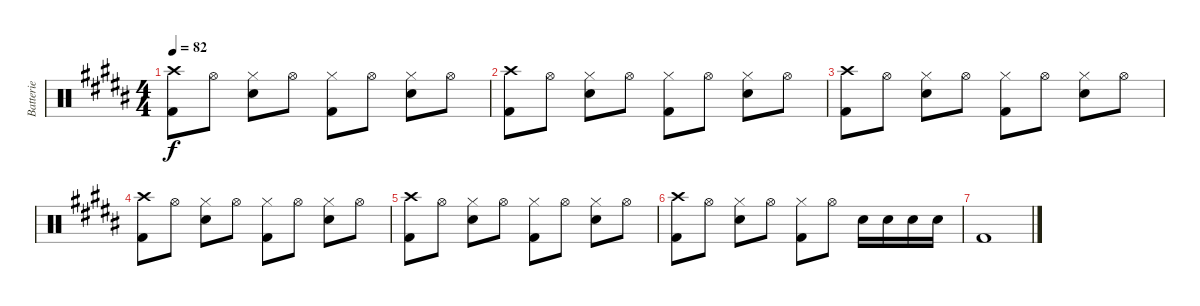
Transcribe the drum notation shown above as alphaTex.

\track ("Batterie" "Batterie") {instrument percussion}
\staff {score}
\articulation defaults
\ts (4 4)
\tempo 82
\clef neutral
\ks b
("Crash high (hit)" "Kick (hit) 2").8{dy f} "Hi-Hat (open)".8 ("Hi-Hat (closed)" "Snare (hit) 2").8 "Hi-Hat (open)".8 ("Hi-Hat (closed)" "Kick (hit) 2").8 "Hi-Hat (open)".8 ("Hi-Hat (closed)" "Snare (hit) 2").8 "Hi-Hat (open)".8 |
("Crash high (hit)" "Kick (hit) 2").8 "Hi-Hat (open)".8 ("Hi-Hat (closed)" "Snare (hit) 2").8 "Hi-Hat (open)".8 ("Hi-Hat (closed)" "Kick (hit) 2").8 "Hi-Hat (open)".8 ("Hi-Hat (closed)" "Snare (hit) 2").8 "Hi-Hat (open)".8 |
("Crash high (hit)" "Kick (hit) 2").8 "Hi-Hat (open)".8 ("Hi-Hat (closed)" "Snare (hit) 2").8 "Hi-Hat (open)".8 ("Hi-Hat (closed)" "Kick (hit) 2").8 "Hi-Hat (open)".8 ("Hi-Hat (closed)" "Snare (hit) 2").8 "Hi-Hat (open)".8 |
("Crash high (hit)" "Kick (hit) 2").8 "Hi-Hat (open)".8 ("Hi-Hat (closed)" "Snare (hit) 2").8 "Hi-Hat (open)".8 ("Hi-Hat (closed)" "Kick (hit) 2").8 "Hi-Hat (open)".8 ("Hi-Hat (closed)" "Snare (hit) 2").8 "Hi-Hat (open)".8 |
("Crash high (hit)" "Kick (hit) 2").8 "Hi-Hat (open)".8 ("Hi-Hat (closed)" "Snare (hit) 2").8 "Hi-Hat (open)".8 ("Hi-Hat (closed)" "Kick (hit) 2").8 "Hi-Hat (open)".8 ("Hi-Hat (closed)" "Snare (hit) 2").8 "Hi-Hat (open)".8 |
("Crash high (hit)" "Kick (hit) 2").8 "Hi-Hat (open)".8 ("Hi-Hat (closed)" "Snare (hit) 2").8 "Hi-Hat (open)".8 ("Hi-Hat (closed)" "Kick (hit) 2").8 "Hi-Hat (open)".8 "Snare (hit) 2".16 "Snare (hit) 2".16 "Snare (hit) 2".16 "Snare (hit) 2".16 |
"Kick (hit) 2".1
